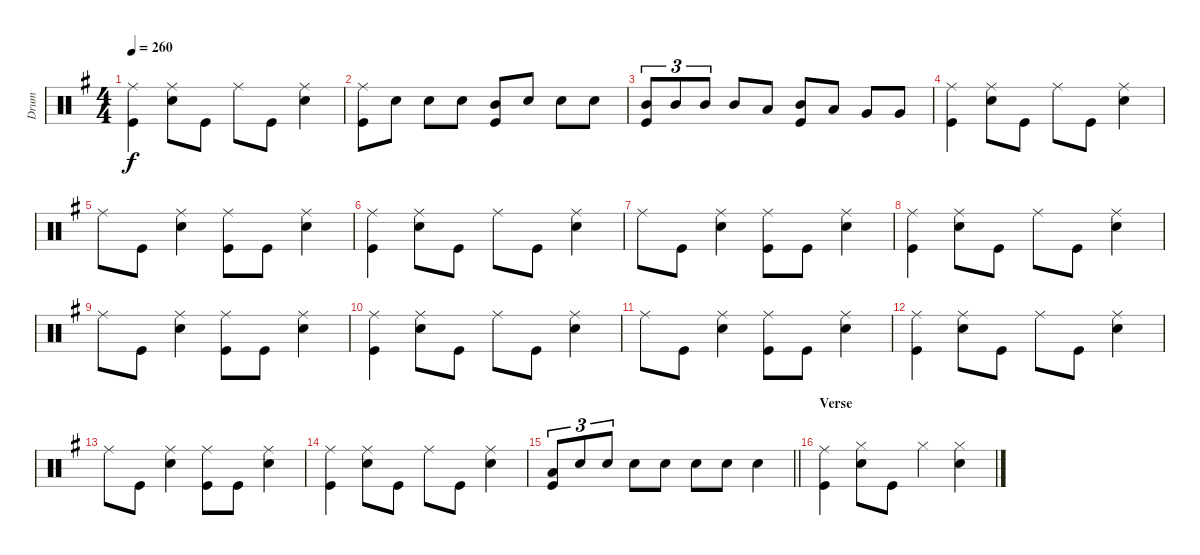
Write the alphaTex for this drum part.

\track ("Drum" "Drum") {instrument percussion}
\staff {score}
\articulation defaults
\ts (4 4)
\tempo 260
\clef neutral
\ks g
("Ride (middle)" "Kick (hit)").4{dy f} ("Ride (middle)" "Snare (hit) 2").8 "Kick (hit)".8 "Ride (middle)".8 "Kick (hit)".8 ("Ride (middle)" "Snare (hit) 2").4 |
("Ride (middle)" "Kick (hit)").8 "Snare (hit) 2".8 "Snare (hit) 2".8 "Snare (hit) 2".8 ("Mid Tom (hit)" "Kick (hit)").8 "Snare (hit) 2".8 "Snare (hit) 2".8 "Snare (hit) 2".8 |
("Mid Tom (hit)" "Kick (hit)").8{tu (3 2)} "Mid Tom (hit)".8{tu (3 2)} "Mid Tom (hit)".8{tu (3 2)} "Mid Tom (hit)".8 "Low Tom (hit)".8 ("Mid Tom (hit)" "Kick (hit)").8 "Low Tom (hit)".8 "Very Low Tom (hit)".8 "Very Low Tom (hit)".8 |
("Kick (hit)" "Ride (middle)").4 ("Ride (middle)" "Snare (hit) 2").8 "Kick (hit)".8 "Ride (middle)".8 "Kick (hit)".8 ("Ride (middle)" "Snare (hit) 2").4 |
"Ride (middle)".8 "Kick (hit)".8 ("Ride (middle)" "Snare (hit) 2").4 ("Ride (middle)" "Kick (hit)").8 "Kick (hit)".8 ("Ride (middle)" "Snare (hit) 2").4 |
("Kick (hit)" "Ride (middle)").4 ("Ride (middle)" "Snare (hit) 2").8 "Kick (hit)".8 "Ride (middle)".8 "Kick (hit)".8 ("Ride (middle)" "Snare (hit) 2").4 |
"Ride (middle)".8 "Kick (hit)".8 ("Ride (middle)" "Snare (hit) 2").4 ("Ride (middle)" "Kick (hit)").8 "Kick (hit)".8 ("Ride (middle)" "Snare (hit) 2").4 |
("Kick (hit)" "Ride (middle)").4 ("Ride (middle)" "Snare (hit) 2").8 "Kick (hit)".8 "Ride (middle)".8 "Kick (hit)".8 ("Ride (middle)" "Snare (hit) 2").4 |
"Ride (middle)".8 "Kick (hit)".8 ("Ride (middle)" "Snare (hit) 2").4 ("Ride (middle)" "Kick (hit)").8 "Kick (hit)".8 ("Ride (middle)" "Snare (hit) 2").4 |
("Kick (hit)" "Ride (middle)").4 ("Ride (middle)" "Snare (hit) 2").8 "Kick (hit)".8 "Ride (middle)".8 "Kick (hit)".8 ("Ride (middle)" "Snare (hit) 2").4 |
"Ride (middle)".8 "Kick (hit)".8 ("Ride (middle)" "Snare (hit) 2").4 ("Ride (middle)" "Kick (hit)").8 "Kick (hit)".8 ("Ride (middle)" "Snare (hit) 2").4 |
("Kick (hit)" "Ride (middle)").4 ("Ride (middle)" "Snare (hit) 2").8 "Kick (hit)".8 "Ride (middle)".8 "Kick (hit)".8 ("Ride (middle)" "Snare (hit) 2").4 |
"Ride (middle)".8 "Kick (hit)".8 ("Ride (middle)" "Snare (hit) 2").4 ("Ride (middle)" "Kick (hit)").8 "Kick (hit)".8 ("Ride (middle)" "Snare (hit) 2").4 |
("Kick (hit)" "Ride (middle)").4 ("Ride (middle)" "Snare (hit) 2").8 "Kick (hit)".8 "Ride (middle)".8 "Kick (hit)".8 ("Ride (middle)" "Snare (hit) 2").4 |
\barLineRight lightlight
("Kick (hit)" "Low Tom (hit)").8{tu (3 2)} "Snare (hit) 2".8{tu (3 2)} "Snare (hit) 2".8{tu (3 2)} "Snare (hit) 2".8 "Snare (hit) 2".8 "Snare (hit) 2".8 "Snare (hit) 2".8 "Snare (hit) 2".4 |
\section ("" "Verse")
("Ride (middle)" "Kick (hit)").4 ("Hi-Hat (closed)" "Snare (hit) 2").8 "Kick (hit)".8 "Hi-Hat (closed)".4 ("Hi-Hat (closed)" "Snare (hit) 2").4
